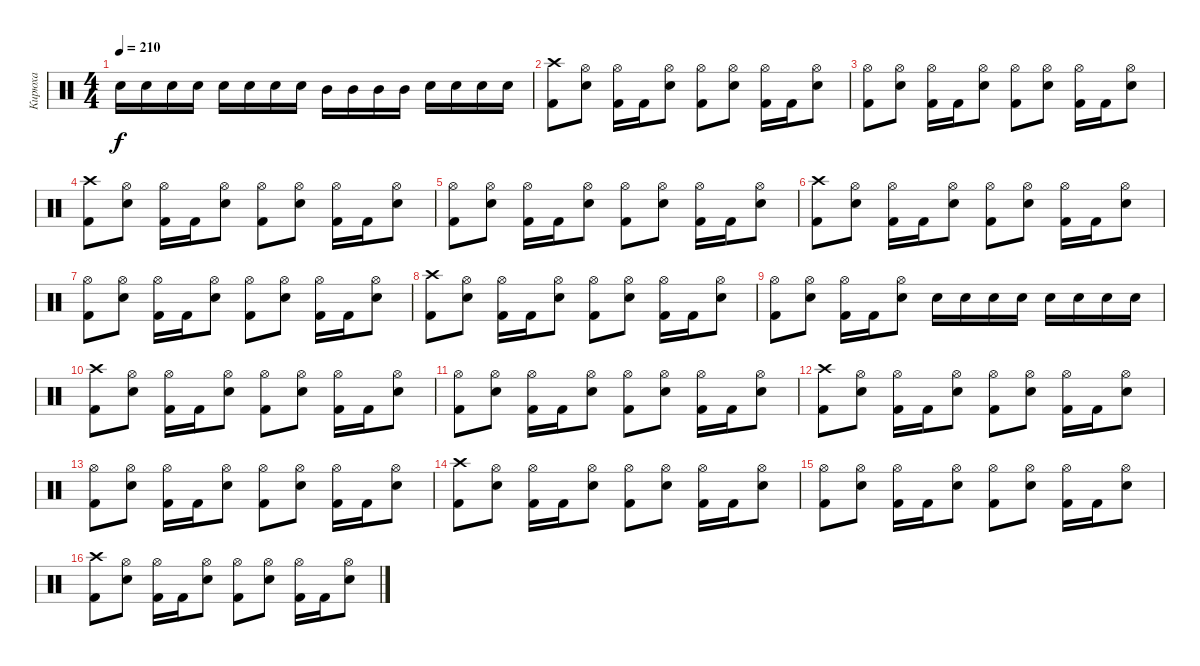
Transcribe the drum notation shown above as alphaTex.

\track ("Кирюха" "Кирюха") {instrument percussion}
\staff {score}
\articulation defaults
\ts (4 4)
\tempo 210
\clef neutral
\ks c "Electric Snare (hit)".16{dy f} "Electric Snare (hit)".16 "Electric Snare (hit)".16 "Electric Snare (hit)".16 "Electric Snare (hit)".16 "Electric Snare (hit)".16 "Electric Snare (hit)".16 "Electric Snare (hit)".16 "Mid Tom (hit)".16 "Mid Tom (hit)".16 "Mid Tom (hit)".16 "Mid Tom (hit)".16 "Electric Snare (hit)".16 "Electric Snare (hit)".16 "Electric Snare (hit)".16 "Electric Snare (hit)".16
|
("Kick (hit) 2" "Crash high (hit)").8 ("Electric Snare (hit)" "Hi-Hat (open)").8 ("Kick (hit) 2" "Hi-Hat (open)").16 "Kick (hit) 2".16 ("Electric Snare (hit)" "Hi-Hat (open)").8 ("Kick (hit) 2" "Hi-Hat (open)").8 ("Electric Snare (hit)" "Hi-Hat (open)").8 ("Kick (hit) 2" "Hi-Hat (open)").16 "Kick (hit) 2".16 ("Electric Snare (hit)" "Hi-Hat (open)").8 |
("Kick (hit) 2" "Hi-Hat (open)").8 ("Electric Snare (hit)" "Hi-Hat (open)").8 ("Kick (hit) 2" "Hi-Hat (open)").16 "Kick (hit) 2".16 ("Electric Snare (hit)" "Hi-Hat (open)").8 ("Kick (hit) 2" "Hi-Hat (open)").8 ("Electric Snare (hit)" "Hi-Hat (open)").8 ("Kick (hit) 2" "Hi-Hat (open)").16 "Kick (hit) 2".16 ("Electric Snare (hit)" "Hi-Hat (open)").8 |
("Kick (hit) 2" "Crash high (hit)").8 ("Electric Snare (hit)" "Hi-Hat (open)").8 ("Kick (hit) 2" "Hi-Hat (open)").16 "Kick (hit) 2".16 ("Electric Snare (hit)" "Hi-Hat (open)").8 ("Kick (hit) 2" "Hi-Hat (open)").8 ("Electric Snare (hit)" "Hi-Hat (open)").8 ("Kick (hit) 2" "Hi-Hat (open)").16 "Kick (hit) 2".16 ("Electric Snare (hit)" "Hi-Hat (open)").8 |
("Kick (hit) 2" "Hi-Hat (open)").8 ("Electric Snare (hit)" "Hi-Hat (open)").8 ("Kick (hit) 2" "Hi-Hat (open)").16 "Kick (hit) 2".16 ("Electric Snare (hit)" "Hi-Hat (open)").8 ("Kick (hit) 2" "Hi-Hat (open)").8 ("Electric Snare (hit)" "Hi-Hat (open)").8 ("Kick (hit) 2" "Hi-Hat (open)").16 "Kick (hit) 2".16 ("Electric Snare (hit)" "Hi-Hat (open)").8 |
("Kick (hit) 2" "Crash high (hit)").8 ("Electric Snare (hit)" "Hi-Hat (open)").8 ("Kick (hit) 2" "Hi-Hat (open)").16 "Kick (hit) 2".16 ("Electric Snare (hit)" "Hi-Hat (open)").8 ("Kick (hit) 2" "Hi-Hat (open)").8 ("Electric Snare (hit)" "Hi-Hat (open)").8 ("Kick (hit) 2" "Hi-Hat (open)").16 "Kick (hit) 2".16 ("Electric Snare (hit)" "Hi-Hat (open)").8 |
("Kick (hit) 2" "Hi-Hat (open)").8 ("Electric Snare (hit)" "Hi-Hat (open)").8 ("Kick (hit) 2" "Hi-Hat (open)").16 "Kick (hit) 2".16 ("Electric Snare (hit)" "Hi-Hat (open)").8 ("Kick (hit) 2" "Hi-Hat (open)").8 ("Electric Snare (hit)" "Hi-Hat (open)").8 ("Kick (hit) 2" "Hi-Hat (open)").16 "Kick (hit) 2".16 ("Electric Snare (hit)" "Hi-Hat (open)").8 |
("Kick (hit) 2" "Crash high (hit)").8 ("Electric Snare (hit)" "Hi-Hat (open)").8 ("Kick (hit) 2" "Hi-Hat (open)").16 "Kick (hit) 2".16 ("Electric Snare (hit)" "Hi-Hat (open)").8 ("Kick (hit) 2" "Hi-Hat (open)").8 ("Electric Snare (hit)" "Hi-Hat (open)").8 ("Kick (hit) 2" "Hi-Hat (open)").16 "Kick (hit) 2".16 ("Electric Snare (hit)" "Hi-Hat (open)").8 |
("Kick (hit) 2" "Hi-Hat (open)").8 ("Electric Snare (hit)" "Hi-Hat (open)").8 ("Kick (hit) 2" "Hi-Hat (open)").16 "Kick (hit) 2".16 ("Electric Snare (hit)" "Hi-Hat (open)").8 "Electric Snare (hit)".16 "Electric Snare (hit)".16 "Electric Snare (hit)".16 "Electric Snare (hit)".16 "Electric Snare (hit)".16 "Electric Snare (hit)".16 "Electric Snare (hit)".16 "Electric Snare (hit)".16 |
("Kick (hit) 2" "Crash high (hit)").8 ("Electric Snare (hit)" "Hi-Hat (open)").8 ("Kick (hit) 2" "Hi-Hat (open)").16 "Kick (hit) 2".16 ("Electric Snare (hit)" "Hi-Hat (open)").8 ("Kick (hit) 2" "Hi-Hat (open)").8 ("Electric Snare (hit)" "Hi-Hat (open)").8 ("Kick (hit) 2" "Hi-Hat (open)").16 "Kick (hit) 2".16 ("Electric Snare (hit)" "Hi-Hat (open)").8 |
("Kick (hit) 2" "Hi-Hat (open)").8 ("Electric Snare (hit)" "Hi-Hat (open)").8 ("Kick (hit) 2" "Hi-Hat (open)").16 "Kick (hit) 2".16 ("Electric Snare (hit)" "Hi-Hat (open)").8 ("Kick (hit) 2" "Hi-Hat (open)").8 ("Electric Snare (hit)" "Hi-Hat (open)").8 ("Kick (hit) 2" "Hi-Hat (open)").16 "Kick (hit) 2".16 ("Electric Snare (hit)" "Hi-Hat (open)").8 |
("Kick (hit) 2" "Crash high (hit)").8 ("Electric Snare (hit)" "Hi-Hat (open)").8 ("Kick (hit) 2" "Hi-Hat (open)").16 "Kick (hit) 2".16 ("Electric Snare (hit)" "Hi-Hat (open)").8 ("Kick (hit) 2" "Hi-Hat (open)").8 ("Electric Snare (hit)" "Hi-Hat (open)").8 ("Kick (hit) 2" "Hi-Hat (open)").16 "Kick (hit) 2".16 ("Electric Snare (hit)" "Hi-Hat (open)").8 |
("Kick (hit) 2" "Hi-Hat (open)").8 ("Electric Snare (hit)" "Hi-Hat (open)").8 ("Kick (hit) 2" "Hi-Hat (open)").16 "Kick (hit) 2".16 ("Electric Snare (hit)" "Hi-Hat (open)").8 ("Kick (hit) 2" "Hi-Hat (open)").8 ("Electric Snare (hit)" "Hi-Hat (open)").8 ("Kick (hit) 2" "Hi-Hat (open)").16 "Kick (hit) 2".16 ("Electric Snare (hit)" "Hi-Hat (open)").8 |
("Kick (hit) 2" "Crash high (hit)").8 ("Electric Snare (hit)" "Hi-Hat (open)").8 ("Kick (hit) 2" "Hi-Hat (open)").16 "Kick (hit) 2".16 ("Electric Snare (hit)" "Hi-Hat (open)").8 ("Kick (hit) 2" "Hi-Hat (open)").8 ("Electric Snare (hit)" "Hi-Hat (open)").8 ("Kick (hit) 2" "Hi-Hat (open)").16 "Kick (hit) 2".16 ("Electric Snare (hit)" "Hi-Hat (open)").8 |
("Kick (hit) 2" "Hi-Hat (open)").8 ("Electric Snare (hit)" "Hi-Hat (open)").8 ("Kick (hit) 2" "Hi-Hat (open)").16 "Kick (hit) 2".16 ("Electric Snare (hit)" "Hi-Hat (open)").8 ("Kick (hit) 2" "Hi-Hat (open)").8 ("Electric Snare (hit)" "Hi-Hat (open)").8 ("Kick (hit) 2" "Hi-Hat (open)").16 "Kick (hit) 2".16 ("Electric Snare (hit)" "Hi-Hat (open)").8 |
("Kick (hit) 2" "Crash high (hit)").8 ("Electric Snare (hit)" "Hi-Hat (open)").8 ("Kick (hit) 2" "Hi-Hat (open)").16 "Kick (hit) 2".16 ("Electric Snare (hit)" "Hi-Hat (open)").8 ("Kick (hit) 2" "Hi-Hat (open)").8 ("Electric Snare (hit)" "Hi-Hat (open)").8 ("Kick (hit) 2" "Hi-Hat (open)").16 "Kick (hit) 2".16 ("Electric Snare (hit)" "Hi-Hat (open)").8
